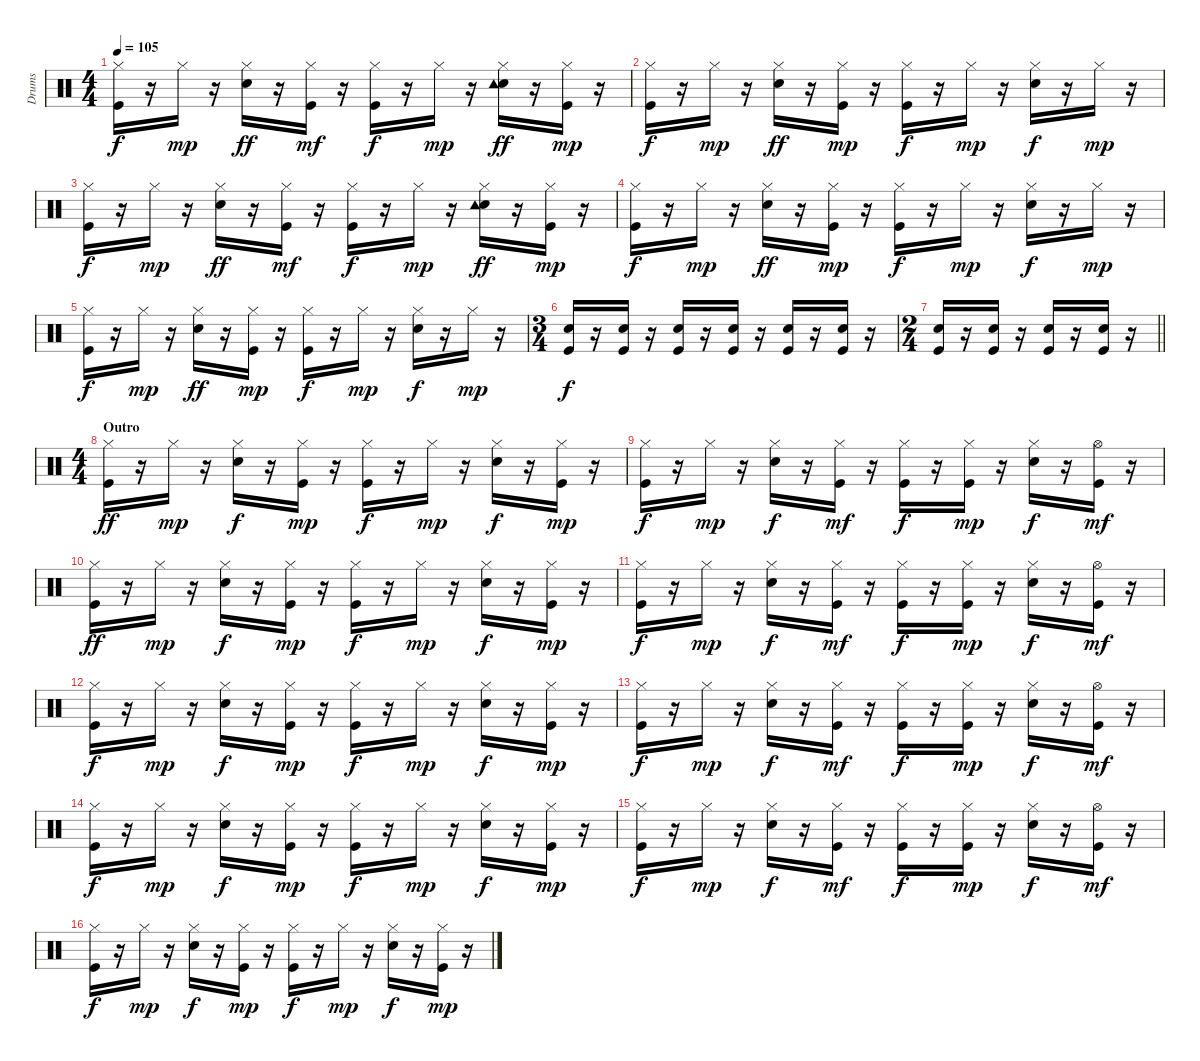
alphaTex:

\track ("Drums   " "Drums   ") {instrument percussion}
\staff {score}
\articulation defaults
\ts (4 4)
\tempo 105
\clef neutral
\ks c
("Kick (hit)" "Hi-Hat (closed)").16{dy f} r.16 "Hi-Hat (closed)".16{dy mp} r.16 ("Snare (hit) 2" "Hi-Hat (closed)").16{dy ff} r.16 ("Kick (hit)" "Hi-Hat (closed)").16{dy mf} r.16 ("Kick (hit)" "Hi-Hat (closed)").16{dy f} r.16 "Hi-Hat (closed)".16{dy mp} r.16 ("Snare (hit) 2" "Hi-Hat (closed)" "Tambourine (hit)").16{dy ff} r.16 ("Kick (hit)" "Hi-Hat (closed)").16{dy mp} r.16 |
("Kick (hit)" "Hi-Hat (closed)").16{dy f} r.16 "Hi-Hat (closed)".16{dy mp} r.16 ("Snare (hit) 2" "Hi-Hat (closed)").16{dy ff} r.16 ("Kick (hit)" "Hi-Hat (closed)").16{dy mp} r.16 ("Kick (hit)" "Hi-Hat (closed)").16{dy f} r.16 "Hi-Hat (closed)".16{dy mp} r.16 ("Snare (hit) 2" "Hi-Hat (closed)").16{dy f} r.16 "Hi-Hat (closed)".16{dy mp} r.16 |
("Kick (hit)" "Hi-Hat (closed)").16{dy f} r.16 "Hi-Hat (closed)".16{dy mp} r.16 ("Snare (hit) 2" "Hi-Hat (closed)").16{dy ff} r.16 ("Kick (hit)" "Hi-Hat (closed)").16{dy mf} r.16 ("Kick (hit)" "Hi-Hat (closed)").16{dy f} r.16 "Hi-Hat (closed)".16{dy mp} r.16 ("Snare (hit) 2" "Hi-Hat (closed)" "Tambourine (hit)").16{dy ff} r.16 ("Kick (hit)" "Hi-Hat (closed)").16{dy mp} r.16 |
("Kick (hit)" "Hi-Hat (closed)").16{dy f} r.16 "Hi-Hat (closed)".16{dy mp} r.16 ("Snare (hit) 2" "Hi-Hat (closed)").16{dy ff} r.16 ("Kick (hit)" "Hi-Hat (closed)").16{dy mp} r.16 ("Kick (hit)" "Hi-Hat (closed)").16{dy f} r.16 "Hi-Hat (closed)".16{dy mp} r.16 ("Snare (hit) 2" "Hi-Hat (closed)").16{dy f} r.16 "Hi-Hat (closed)".16{dy mp} r.16 |
("Kick (hit)" "Hi-Hat (closed)").16{dy f} r.16 "Hi-Hat (closed)".16{dy mp} r.16 ("Snare (hit) 2" "Hi-Hat (closed)").16{dy ff} r.16 ("Kick (hit)" "Hi-Hat (closed)").16{dy mp} r.16 ("Kick (hit)" "Hi-Hat (closed)").16{dy f} r.16 "Hi-Hat (closed)".16{dy mp} r.16 ("Snare (hit) 2" "Hi-Hat (closed)").16{dy f} r.16 "Hi-Hat (closed)".16{dy mp} r.16 |
\ts (3 4)
("Kick (hit)" "Snare (hit) 2").16{dy f} r.16 ("Kick (hit)" "Snare (hit) 2").16 r.16 ("Kick (hit)" "Snare (hit) 2").16 r.16 ("Kick (hit)" "Snare (hit) 2").16 r.16 ("Kick (hit)" "Snare (hit) 2").16 r.16 ("Kick (hit)" "Snare (hit) 2").16 r.16 |
\ts (2 4)
\barLineRight lightlight
("Kick (hit)" "Snare (hit) 2").16 r.16 ("Kick (hit)" "Snare (hit) 2").16 r.16 ("Kick (hit)" "Snare (hit) 2").16 r.16 ("Kick (hit)" "Snare (hit) 2").16 r.16 |
\ts (4 4)
\section ("" "Outro")
("Kick (hit)" "Hi-Hat (closed)").16{dy ff} r.16 "Hi-Hat (closed)".16{dy mp} r.16 ("Snare (hit) 2" "Hi-Hat (closed)").16{dy f} r.16 ("Kick (hit)" "Hi-Hat (closed)").16{dy mp} r.16 ("Kick (hit)" "Hi-Hat (closed)").16{dy f} r.16 "Hi-Hat (closed)".16{dy mp} r.16 ("Snare (hit) 2" "Hi-Hat (closed)").16{dy f} r.16 ("Kick (hit)" "Hi-Hat (closed)").16{dy mp} r.16 |
("Kick (hit)" "Hi-Hat (closed)").16{dy f} r.16 "Hi-Hat (closed)".16{dy mp} r.16 ("Snare (hit) 2" "Hi-Hat (closed)").16{dy f} r.16 ("Kick (hit)" "Hi-Hat (closed)").16{dy mf} r.16 ("Kick (hit)" "Hi-Hat (closed)").16{dy f} r.16 ("Kick (hit)" "Hi-Hat (closed)").16{dy mp} r.16 ("Snare (hit) 2" "Hi-Hat (closed)").16{dy f} r.16 ("Kick (hit)" "Hi-Hat (open)").16{dy mf} r.16 |
("Kick (hit)" "Hi-Hat (closed)").16{dy ff} r.16 "Hi-Hat (closed)".16{dy mp} r.16 ("Snare (hit) 2" "Hi-Hat (closed)").16{dy f} r.16 ("Kick (hit)" "Hi-Hat (closed)").16{dy mp} r.16 ("Kick (hit)" "Hi-Hat (closed)").16{dy f} r.16 "Hi-Hat (closed)".16{dy mp} r.16 ("Snare (hit) 2" "Hi-Hat (closed)").16{dy f} r.16 ("Kick (hit)" "Hi-Hat (closed)").16{dy mp} r.16 |
("Kick (hit)" "Hi-Hat (closed)").16{dy f} r.16 "Hi-Hat (closed)".16{dy mp} r.16 ("Snare (hit) 2" "Hi-Hat (closed)").16{dy f} r.16 ("Kick (hit)" "Hi-Hat (closed)").16{dy mf} r.16 ("Kick (hit)" "Hi-Hat (closed)").16{dy f} r.16 ("Kick (hit)" "Hi-Hat (closed)").16{dy mp} r.16 ("Snare (hit) 2" "Hi-Hat (closed)").16{dy f} r.16 ("Kick (hit)" "Hi-Hat (open)").16{dy mf} r.16 |
("Kick (hit)" "Hi-Hat (closed)").16{dy f} r.16 "Hi-Hat (closed)".16{dy mp} r.16 ("Snare (hit) 2" "Hi-Hat (closed)").16{dy f} r.16 ("Kick (hit)" "Hi-Hat (closed)").16{dy mp} r.16 ("Kick (hit)" "Hi-Hat (closed)").16{dy f} r.16 "Hi-Hat (closed)".16{dy mp} r.16 ("Snare (hit) 2" "Hi-Hat (closed)").16{dy f} r.16 ("Kick (hit)" "Hi-Hat (closed)").16{dy mp} r.16 |
("Kick (hit)" "Hi-Hat (closed)").16{dy f} r.16 "Hi-Hat (closed)".16{dy mp} r.16 ("Snare (hit) 2" "Hi-Hat (closed)").16{dy f} r.16 ("Kick (hit)" "Hi-Hat (closed)").16{dy mf} r.16 ("Kick (hit)" "Hi-Hat (closed)").16{dy f} r.16 ("Kick (hit)" "Hi-Hat (closed)").16{dy mp} r.16 ("Snare (hit) 2" "Hi-Hat (closed)").16{dy f} r.16 ("Kick (hit)" "Hi-Hat (open)").16{dy mf} r.16 |
("Kick (hit)" "Hi-Hat (closed)").16{dy f} r.16 "Hi-Hat (closed)".16{dy mp} r.16 ("Snare (hit) 2" "Hi-Hat (closed)").16{dy f} r.16 ("Kick (hit)" "Hi-Hat (closed)").16{dy mp} r.16 ("Kick (hit)" "Hi-Hat (closed)").16{dy f} r.16 "Hi-Hat (closed)".16{dy mp} r.16 ("Snare (hit) 2" "Hi-Hat (closed)").16{dy f} r.16 ("Kick (hit)" "Hi-Hat (closed)").16{dy mp} r.16 |
("Kick (hit)" "Hi-Hat (closed)").16{dy f} r.16 "Hi-Hat (closed)".16{dy mp} r.16 ("Snare (hit) 2" "Hi-Hat (closed)").16{dy f} r.16 ("Kick (hit)" "Hi-Hat (closed)").16{dy mf} r.16 ("Kick (hit)" "Hi-Hat (closed)").16{dy f} r.16 ("Kick (hit)" "Hi-Hat (closed)").16{dy mp} r.16 ("Snare (hit) 2" "Hi-Hat (closed)").16{dy f} r.16 ("Kick (hit)" "Hi-Hat (open)").16{dy mf} r.16 |
("Kick (hit)" "Hi-Hat (closed)").16{dy f} r.16 "Hi-Hat (closed)".16{dy mp} r.16 ("Snare (hit) 2" "Hi-Hat (closed)").16{dy f} r.16 ("Kick (hit)" "Hi-Hat (closed)").16{dy mp} r.16 ("Kick (hit)" "Hi-Hat (closed)").16{dy f} r.16 "Hi-Hat (closed)".16{dy mp} r.16 ("Snare (hit) 2" "Hi-Hat (closed)").16{dy f} r.16 ("Kick (hit)" "Hi-Hat (closed)").16{dy mp} r.16
